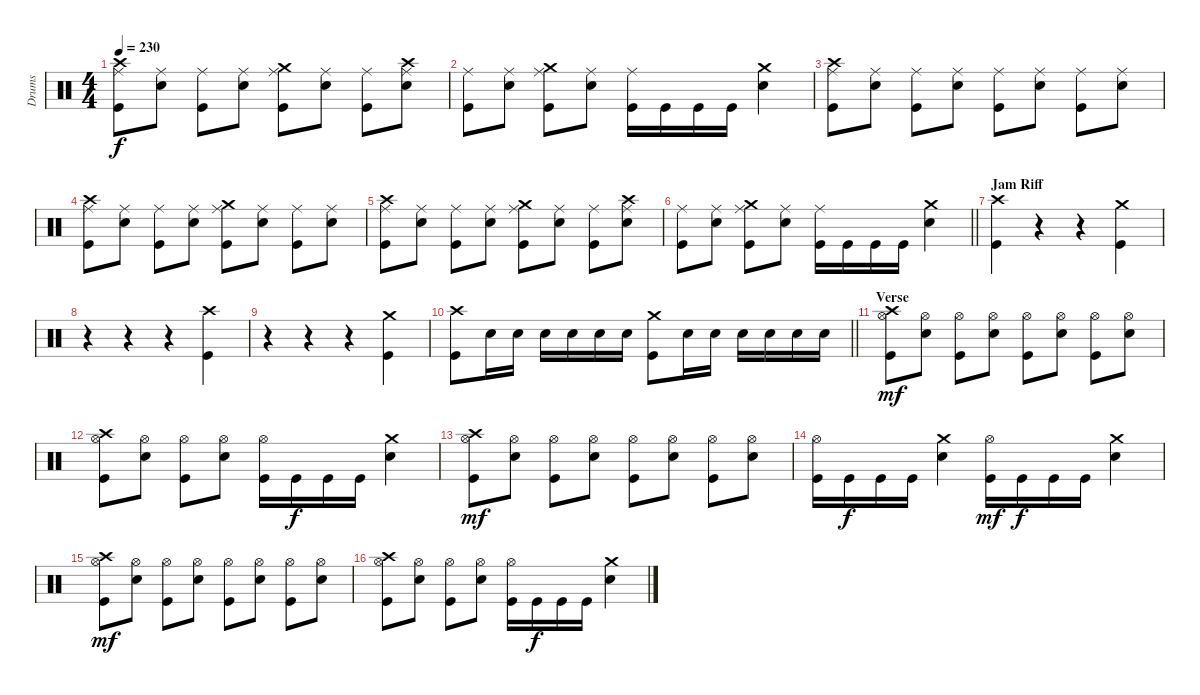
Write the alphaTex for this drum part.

\track ("Drums" "Drums") {instrument percussion}
\staff {score}
\articulation defaults
\ts (4 4)
\tempo 230
\clef neutral
\ks c
("Crash high (hit)" "Ride (middle)" "Kick (hit)").8{dy f} ("Ride (middle)" "Electric Snare (hit)").8 ("Ride (middle)" "Kick (hit)").8 ("Ride (middle)" "Electric Snare (hit)").8 ("Crash medium (hit)" "Ride (middle)" "Kick (hit)").8 ("Ride (middle)" "Electric Snare (hit)").8 ("Ride (middle)" "Kick (hit)").8 ("Crash high (hit)" "Ride (middle)" "Electric Snare (hit)").8 |
("Ride (middle)" "Kick (hit)").8 ("Ride (middle)" "Electric Snare (hit)").8 ("Crash medium (hit)" "Ride (middle)" "Kick (hit)").8 ("Ride (middle)" "Electric Snare (hit)").8 ("Ride (middle)" "Kick (hit)").16 "Kick (hit)".16 "Kick (hit)".16 "Kick (hit)".16 ("Crash medium (hit)" "Electric Snare (hit)").4 |
("Crash high (hit)" "Ride (middle)" "Kick (hit)").8 ("Ride (middle)" "Electric Snare (hit)").8 ("Ride (middle)" "Kick (hit)").8 ("Ride (middle)" "Electric Snare (hit)").8 ("Ride (middle)" "Kick (hit)").8 ("Ride (middle)" "Electric Snare (hit)").8 ("Ride (middle)" "Kick (hit)").8 ("Ride (middle)" "Electric Snare (hit)").8 |
("Crash high (hit)" "Ride (middle)" "Kick (hit)").8 ("Ride (middle)" "Electric Snare (hit)").8 ("Ride (middle)" "Kick (hit)").8 ("Ride (middle)" "Electric Snare (hit)").8 ("Crash medium (hit)" "Ride (middle)" "Kick (hit)").8 ("Ride (middle)" "Electric Snare (hit)").8 ("Ride (middle)" "Kick (hit)").8 ("Ride (middle)" "Electric Snare (hit)").8 |
("Crash high (hit)" "Ride (middle)" "Kick (hit)").8 ("Ride (middle)" "Electric Snare (hit)").8 ("Ride (middle)" "Kick (hit)").8 ("Ride (middle)" "Electric Snare (hit)").8 ("Crash medium (hit)" "Ride (middle)" "Kick (hit)").8 ("Ride (middle)" "Electric Snare (hit)").8 ("Ride (middle)" "Kick (hit)").8 ("Crash high (hit)" "Ride (middle)" "Electric Snare (hit)").8 |
\barLineRight lightlight
("Ride (middle)" "Kick (hit)").8 ("Ride (middle)" "Electric Snare (hit)").8 ("Crash medium (hit)" "Ride (middle)" "Kick (hit)").8 ("Ride (middle)" "Electric Snare (hit)").8 ("Ride (middle)" "Kick (hit)").16 "Kick (hit)".16 "Kick (hit)".16 "Kick (hit)".16 ("Crash medium (hit)" "Electric Snare (hit)").4 |
\section ("" "Jam Riff")
("Crash high (hit)" "Kick (hit)").4 r.4 r.4 ("Crash medium (hit)" "Kick (hit)").4 |
r.4 r.4 r.4 ("Crash high (hit)" "Kick (hit)").4 |
r.4 r.4 r.4 ("Crash medium (hit)" "Kick (hit)").4 |
\barLineRight lightlight
("Crash high (hit)" "Kick (hit)").8 "Electric Snare (hit)".16 "Electric Snare (hit)".16 "Electric Snare (hit)".16 "Electric Snare (hit)".16 "Electric Snare (hit)".16 "Electric Snare (hit)".16 ("Crash medium (hit)" "Kick (hit)").8 "Electric Snare (hit)".16 "Electric Snare (hit)".16 "Electric Snare (hit)".16 "Electric Snare (hit)".16 "Electric Snare (hit)".16 "Electric Snare (hit)".16 |
\section ("" "Verse")
("Crash high (hit)" "Hi-Hat (open)" "Kick (hit)").8{dy mf} ("Hi-Hat (open)" "Electric Snare (hit)").8 ("Hi-Hat (open)" "Kick (hit)").8 ("Hi-Hat (open)" "Electric Snare (hit)").8 ("Hi-Hat (open)" "Kick (hit)").8 ("Hi-Hat (open)" "Electric Snare (hit)").8 ("Hi-Hat (open)" "Kick (hit)").8 ("Hi-Hat (open)" "Electric Snare (hit)").8 |
("Crash high (hit)" "Hi-Hat (open)" "Kick (hit)").8 ("Hi-Hat (open)" "Electric Snare (hit)").8 ("Hi-Hat (open)" "Kick (hit)").8 ("Hi-Hat (open)" "Electric Snare (hit)").8 ("Hi-Hat (open)" "Kick (hit)").16 "Kick (hit)".16{dy f} "Kick (hit)".16 "Kick (hit)".16 ("Crash medium (hit)" "Electric Snare (hit)").4 |
("Crash high (hit)" "Hi-Hat (open)" "Kick (hit)").8{dy mf} ("Hi-Hat (open)" "Electric Snare (hit)").8 ("Hi-Hat (open)" "Kick (hit)").8 ("Hi-Hat (open)" "Electric Snare (hit)").8 ("Hi-Hat (open)" "Kick (hit)").8 ("Hi-Hat (open)" "Electric Snare (hit)").8 ("Hi-Hat (open)" "Kick (hit)").8 ("Hi-Hat (open)" "Electric Snare (hit)").8 |
("Hi-Hat (open)" "Kick (hit)").16 "Kick (hit)".16{dy f} "Kick (hit)".16 "Kick (hit)".16 ("Crash medium (hit)" "Electric Snare (hit)").4 ("Hi-Hat (open)" "Kick (hit)").16{dy mf} "Kick (hit)".16{dy f} "Kick (hit)".16 "Kick (hit)".16 ("Crash medium (hit)" "Electric Snare (hit)").4 |
("Crash high (hit)" "Hi-Hat (open)" "Kick (hit)").8{dy mf} ("Hi-Hat (open)" "Electric Snare (hit)").8 ("Hi-Hat (open)" "Kick (hit)").8 ("Hi-Hat (open)" "Electric Snare (hit)").8 ("Hi-Hat (open)" "Kick (hit)").8 ("Hi-Hat (open)" "Electric Snare (hit)").8 ("Hi-Hat (open)" "Kick (hit)").8 ("Hi-Hat (open)" "Electric Snare (hit)").8 |
("Crash high (hit)" "Hi-Hat (open)" "Kick (hit)").8 ("Hi-Hat (open)" "Electric Snare (hit)").8 ("Hi-Hat (open)" "Kick (hit)").8 ("Hi-Hat (open)" "Electric Snare (hit)").8 ("Hi-Hat (open)" "Kick (hit)").16 "Kick (hit)".16{dy f} "Kick (hit)".16 "Kick (hit)".16 ("Crash medium (hit)" "Electric Snare (hit)").4
